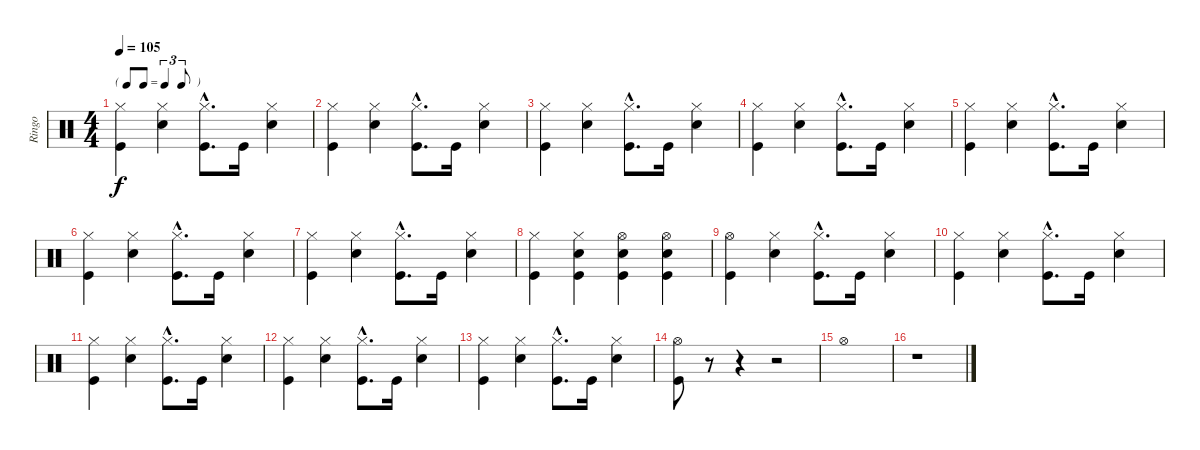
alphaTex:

\track ("Ringo" "Ringo") {instrument percussion}
\staff {score}
\articulation defaults
\ts (4 4)
\tf triplet8th
\tempo 105
\clef neutral
\ks c
("Hi-Hat (closed)" "Kick (hit)").4{dy f} ("Hi-Hat (closed)" "Snare (hit) 2").4 ("Hi-Hat (closed)"{hac} "Kick (hit)"{hac}).8{d} "Kick (hit)".16 ("Hi-Hat (closed)" "Snare (hit) 2").4 |
("Hi-Hat (closed)" "Kick (hit)").4 ("Hi-Hat (closed)" "Snare (hit) 2").4 ("Hi-Hat (closed)"{hac} "Kick (hit)"{hac}).8{d} "Kick (hit)".16 ("Hi-Hat (closed)" "Snare (hit) 2").4 |
("Hi-Hat (closed)" "Kick (hit)").4 ("Hi-Hat (closed)" "Snare (hit) 2").4 ("Hi-Hat (closed)"{hac} "Kick (hit)"{hac}).8{d} "Kick (hit)".16 ("Hi-Hat (closed)" "Snare (hit) 2").4 |
("Hi-Hat (closed)" "Kick (hit)").4 ("Hi-Hat (closed)" "Snare (hit) 2").4 ("Hi-Hat (closed)"{hac} "Kick (hit)"{hac}).8{d} "Kick (hit)".16 ("Hi-Hat (closed)" "Snare (hit) 2").4 |
("Hi-Hat (closed)" "Kick (hit)").4 ("Hi-Hat (closed)" "Snare (hit) 2").4 ("Hi-Hat (closed)"{hac} "Kick (hit)"{hac}).8{d} "Kick (hit)".16 ("Hi-Hat (closed)" "Snare (hit) 2").4 |
("Hi-Hat (closed)" "Kick (hit)").4 ("Hi-Hat (closed)" "Snare (hit) 2").4 ("Hi-Hat (closed)"{hac} "Kick (hit)"{hac}).8{d} "Kick (hit)".16 ("Hi-Hat (closed)" "Snare (hit) 2").4 |
("Hi-Hat (closed)" "Kick (hit)").4 ("Hi-Hat (closed)" "Snare (hit) 2").4 ("Hi-Hat (closed)"{hac} "Kick (hit)"{hac}).8{d} "Kick (hit)".16 ("Hi-Hat (closed)" "Snare (hit) 2").4 |
("Hi-Hat (closed)" "Kick (hit)").4 ("Hi-Hat (closed)" "Snare (hit) 2" "Kick (hit)").4 ("Hi-Hat (open)" "Snare (hit) 2" "Kick (hit)").4 ("Hi-Hat (open)" "Snare (hit) 2" "Kick (hit)").4 |
("Hi-Hat (open)" "Kick (hit)").4 ("Hi-Hat (closed)" "Snare (hit) 2").4 ("Hi-Hat (closed)"{hac} "Kick (hit)"{hac}).8{d} "Kick (hit)".16 ("Hi-Hat (closed)" "Snare (hit) 2").4 |
("Hi-Hat (closed)" "Kick (hit)").4 ("Hi-Hat (closed)" "Snare (hit) 2").4 ("Hi-Hat (closed)"{hac} "Kick (hit)"{hac}).8{d} "Kick (hit)".16 ("Hi-Hat (closed)" "Snare (hit) 2").4 |
("Hi-Hat (closed)" "Kick (hit)").4 ("Hi-Hat (closed)" "Snare (hit) 2").4 ("Hi-Hat (closed)"{hac} "Kick (hit)"{hac}).8{d} "Kick (hit)".16 ("Hi-Hat (closed)" "Snare (hit) 2").4 |
("Hi-Hat (closed)" "Kick (hit)").4 ("Hi-Hat (closed)" "Snare (hit) 2").4 ("Hi-Hat (closed)"{hac} "Kick (hit)"{hac}).8{d} "Kick (hit)".16 ("Hi-Hat (closed)" "Snare (hit) 2").4 |
("Hi-Hat (closed)" "Kick (hit)").4 ("Hi-Hat (closed)" "Snare (hit) 2").4 ("Hi-Hat (closed)"{hac} "Kick (hit)"{hac}).8{d} "Kick (hit)".16 ("Hi-Hat (closed)" "Snare (hit) 2").4 |
("Hi-Hat (open)" "Kick (hit)").8 r.8 r.4 r.2 |
"Hi-Hat (open)".1 |
r.1
